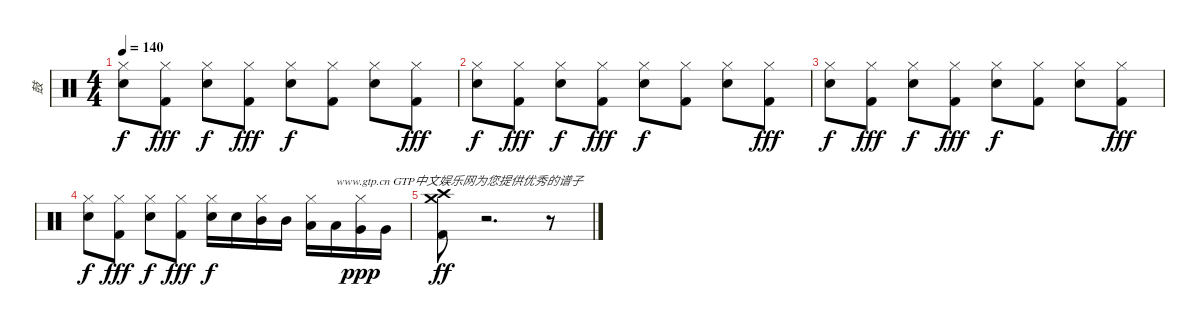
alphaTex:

\track ("鼓" "鼓") {instrument percussion}
\staff {score}
\articulation defaults
\ts (4 4)
\tempo 140
\clef neutral
\ks c
("Hi-Hat (closed)" "Snare (hit) 2").8{dy f} ("Hi-Hat (closed)" "Kick (hit) 2").8{dy fff} ("Hi-Hat (closed)" "Snare (hit) 2").8{dy f} ("Hi-Hat (closed)" "Kick (hit) 2").8{dy fff} ("Hi-Hat (closed)" "Snare (hit) 2").8{dy f} ("Hi-Hat (closed)" "Kick (hit) 2").8 ("Hi-Hat (closed)" "Snare (hit) 2").8 ("Hi-Hat (closed)" "Kick (hit) 2").8{dy fff} |
("Hi-Hat (closed)" "Snare (hit) 2").8{dy f} ("Hi-Hat (closed)" "Kick (hit) 2").8{dy fff} ("Hi-Hat (closed)" "Snare (hit) 2").8{dy f} ("Hi-Hat (closed)" "Kick (hit) 2").8{dy fff} ("Hi-Hat (closed)" "Snare (hit) 2").8{dy f} ("Hi-Hat (closed)" "Kick (hit) 2").8 ("Hi-Hat (closed)" "Snare (hit) 2").8 ("Hi-Hat (closed)" "Kick (hit) 2").8{dy fff} |
("Hi-Hat (closed)" "Snare (hit) 2").8{dy f} ("Hi-Hat (closed)" "Kick (hit) 2").8{dy fff} ("Hi-Hat (closed)" "Snare (hit) 2").8{dy f} ("Hi-Hat (closed)" "Kick (hit) 2").8{dy fff} ("Hi-Hat (closed)" "Snare (hit) 2").8{dy f} ("Hi-Hat (closed)" "Kick (hit) 2").8 ("Hi-Hat (closed)" "Snare (hit) 2").8 ("Hi-Hat (closed)" "Kick (hit) 2").8{dy fff} |
("Hi-Hat (closed)" "Snare (hit) 2").8{dy f} ("Hi-Hat (closed)" "Kick (hit) 2").8{dy fff} ("Hi-Hat (closed)" "Snare (hit) 2").8{dy f} ("Hi-Hat (closed)" "Kick (hit) 2").8{dy fff} ("Hi-Hat (closed)" "Snare (hit) 2").16{dy f} "Snare (hit) 2".16 ("Hi-Hat (closed)" "Mid Tom (hit)").16 "Mid Tom (hit)".16 ("Hi-Hat (closed)" "Low Tom (hit)").16 "Low Tom (hit)".16{txt "www.gtp.cn GTP中文娱乐网为您提供优秀的谱子"} ("Hi-Hat (closed)" "Very Low Tom (hit)").16{dy ppp} "Very Low Tom (hit)".16 |
("Crash high (hit)" "Crash medium (hit)" "Kick (hit) 2").8{dy ff} r.2{d} r.8
